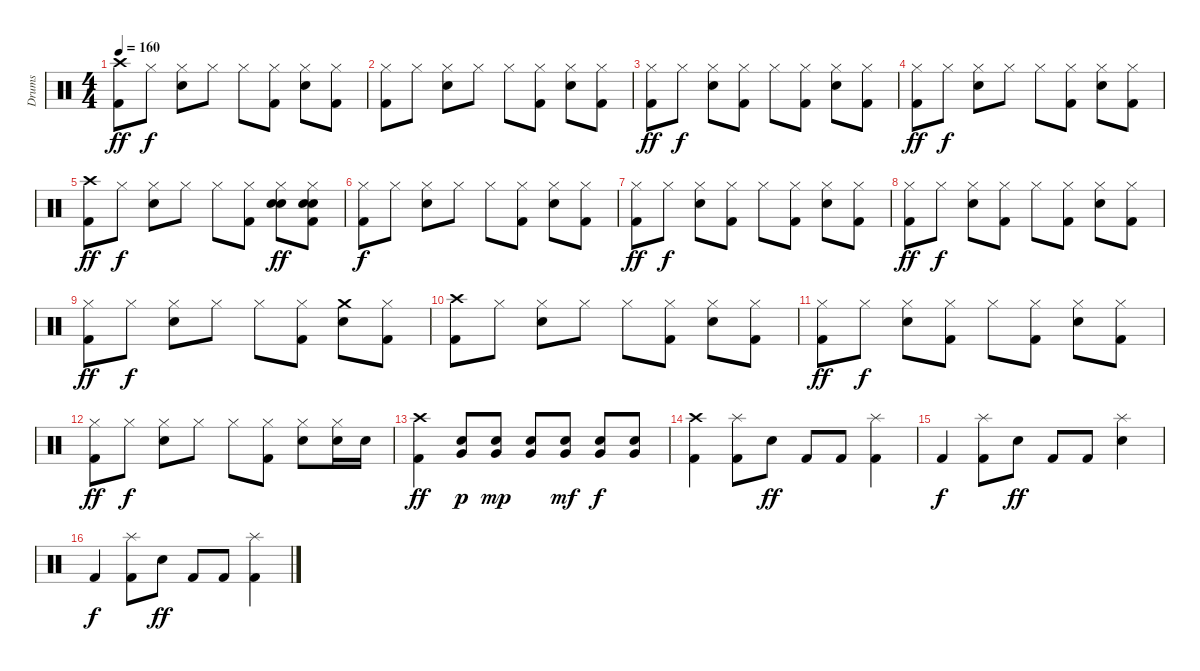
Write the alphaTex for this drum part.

\track ("Drums" "Drums") {instrument percussion}
\staff {score}
\articulation defaults
\ts (4 4)
\tempo 160
\clef neutral
\ks c
("Crash high (hit)" "Kick (hit) 2").8{dy ff} "Hi-Hat (closed)".8{dy f} ("Hi-Hat (closed)" "Snare (hit) 2").8 "Hi-Hat (closed)".8 "Hi-Hat (closed)".8 ("Hi-Hat (closed)" "Kick (hit) 2").8 ("Hi-Hat (closed)" "Snare (hit) 2").8 ("Hi-Hat (closed)" "Kick (hit) 2").8 |
("Hi-Hat (closed)" "Kick (hit) 2").8 "Hi-Hat (closed)".8 ("Hi-Hat (closed)" "Snare (hit) 2").8 "Hi-Hat (closed)".8 "Hi-Hat (closed)".8 ("Hi-Hat (closed)" "Kick (hit) 2").8 ("Hi-Hat (closed)" "Snare (hit) 2").8 ("Hi-Hat (closed)" "Kick (hit) 2").8 |
("Hi-Hat (closed)" "Kick (hit) 2").8{dy ff} "Hi-Hat (closed)".8{dy f} ("Hi-Hat (closed)" "Snare (hit) 2").8 ("Kick (hit) 2" "Hi-Hat (closed)").8 "Hi-Hat (closed)".8 ("Hi-Hat (closed)" "Kick (hit) 2").8 ("Hi-Hat (closed)" "Snare (hit) 2").8 ("Hi-Hat (closed)" "Kick (hit) 2").8 |
("Hi-Hat (closed)" "Kick (hit) 2").8{dy ff} "Hi-Hat (closed)".8{dy f} ("Hi-Hat (closed)" "Snare (hit) 2").8 "Hi-Hat (closed)".8 "Hi-Hat (closed)".8 ("Hi-Hat (closed)" "Kick (hit) 2").8 ("Hi-Hat (closed)" "Snare (hit) 2").8 ("Hi-Hat (closed)" "Kick (hit) 2").8 |
("Crash high (hit)" "Kick (hit) 2").8{dy ff} "Hi-Hat (closed)".8{dy f} ("Hi-Hat (closed)" "Snare (hit) 2").8 "Hi-Hat (closed)".8 "Hi-Hat (closed)".8 ("Hi-Hat (closed)" "Kick (hit) 2").8 ("Snare (hit) 2" "Hi-Hat (closed)" "Snare (hit) 2").8{dy ff} ("Snare (hit) 2" "Snare (hit) 2" "Hi-Hat (closed)" "Kick (hit) 2").8 |
("Hi-Hat (closed)" "Kick (hit) 2").8{dy f} "Hi-Hat (closed)".8 ("Hi-Hat (closed)" "Snare (hit) 2").8 "Hi-Hat (closed)".8 "Hi-Hat (closed)".8 ("Hi-Hat (closed)" "Kick (hit) 2").8 ("Hi-Hat (closed)" "Snare (hit) 2").8 ("Hi-Hat (closed)" "Kick (hit) 2").8 |
("Hi-Hat (closed)" "Kick (hit) 2").8{dy ff} "Hi-Hat (closed)".8{dy f} ("Hi-Hat (closed)" "Snare (hit) 2").8 ("Kick (hit) 2" "Hi-Hat (closed)").8 "Hi-Hat (closed)".8 ("Hi-Hat (closed)" "Kick (hit) 2").8 ("Hi-Hat (closed)" "Snare (hit) 2").8 ("Hi-Hat (closed)" "Kick (hit) 2").8 |
("Hi-Hat (closed)" "Kick (hit) 2").8{dy ff} "Hi-Hat (closed)".8{dy f} ("Hi-Hat (closed)" "Snare (hit) 2").8 ("Kick (hit) 2" "Hi-Hat (closed)").8 "Hi-Hat (closed)".8 ("Hi-Hat (closed)" "Kick (hit) 2").8 ("Hi-Hat (closed)" "Snare (hit) 2").8 ("Hi-Hat (closed)" "Kick (hit) 2").8 |
("Hi-Hat (closed)" "Kick (hit) 2").8{dy ff} "Hi-Hat (closed)".8{dy f} ("Hi-Hat (closed)" "Snare (hit) 2").8 "Hi-Hat (closed)".8 "Hi-Hat (closed)".8 ("Hi-Hat (closed)" "Kick (hit) 2").8 ("Crash medium (hit)" "Snare (hit) 2").8 ("Hi-Hat (closed)" "Kick (hit) 2").8 |
("Crash high (hit)" "Kick (hit) 2").8 "Hi-Hat (closed)".8 ("Hi-Hat (closed)" "Snare (hit) 2").8 "Hi-Hat (closed)".8 "Hi-Hat (closed)".8 ("Hi-Hat (closed)" "Kick (hit) 2").8 ("Hi-Hat (closed)" "Snare (hit) 2").8 ("Hi-Hat (closed)" "Kick (hit) 2").8 |
("Hi-Hat (closed)" "Kick (hit) 2").8{dy ff} "Hi-Hat (closed)".8{dy f} ("Hi-Hat (closed)" "Snare (hit) 2").8 ("Kick (hit) 2" "Hi-Hat (closed)").8 "Hi-Hat (closed)".8 ("Hi-Hat (closed)" "Kick (hit) 2").8 ("Hi-Hat (closed)" "Snare (hit) 2").8 ("Hi-Hat (closed)" "Kick (hit) 2").8 |
("Hi-Hat (closed)" "Kick (hit) 2").8{dy ff} "Hi-Hat (closed)".8{dy f} ("Hi-Hat (closed)" "Snare (hit) 2").8 "Hi-Hat (closed)".8 "Hi-Hat (closed)".8 ("Hi-Hat (closed)" "Kick (hit) 2").8 ("Hi-Hat (closed)" "Snare (hit) 2").8 ("Snare (hit) 2" "Hi-Hat (closed)").16 "Snare (hit) 2".16 |
("Crash high (hit)" "Kick (hit) 2").4{dy ff} ("Very Low Tom (hit)" "Snare (hit) 2").8{dy p} ("Very Low Tom (hit)" "Snare (hit) 2").8{dy mp} ("Very Low Tom (hit)" "Snare (hit) 2").8 ("Very Low Tom (hit)" "Snare (hit) 2").8{dy mf} ("Very Low Tom (hit)" "Snare (hit) 2").8{dy f} ("Very Low Tom (hit)" "Snare (hit) 2").8 |
("Crash high (hit)" "Kick (hit) 2").4 ("Kick (hit) 2" "Splash (hit)").8 "Snare (hit) 2".8{dy ff} "Kick (hit) 2".8 "Kick (hit) 2".8 ("Kick (hit) 2" "Splash (hit)").4 |
"Kick (hit) 2".4{dy f} ("Kick (hit) 2" "Splash (hit)").8 "Snare (hit) 2".8{dy ff} "Kick (hit) 2".8 "Kick (hit) 2".8 ("Snare (hit) 2" "Splash (hit)").4 |
"Kick (hit) 2".4{dy f} ("Kick (hit) 2" "Splash (hit)").8 "Snare (hit) 2".8{dy ff} "Kick (hit) 2".8 "Kick (hit) 2".8 ("Kick (hit) 2" "Splash (hit)").4
